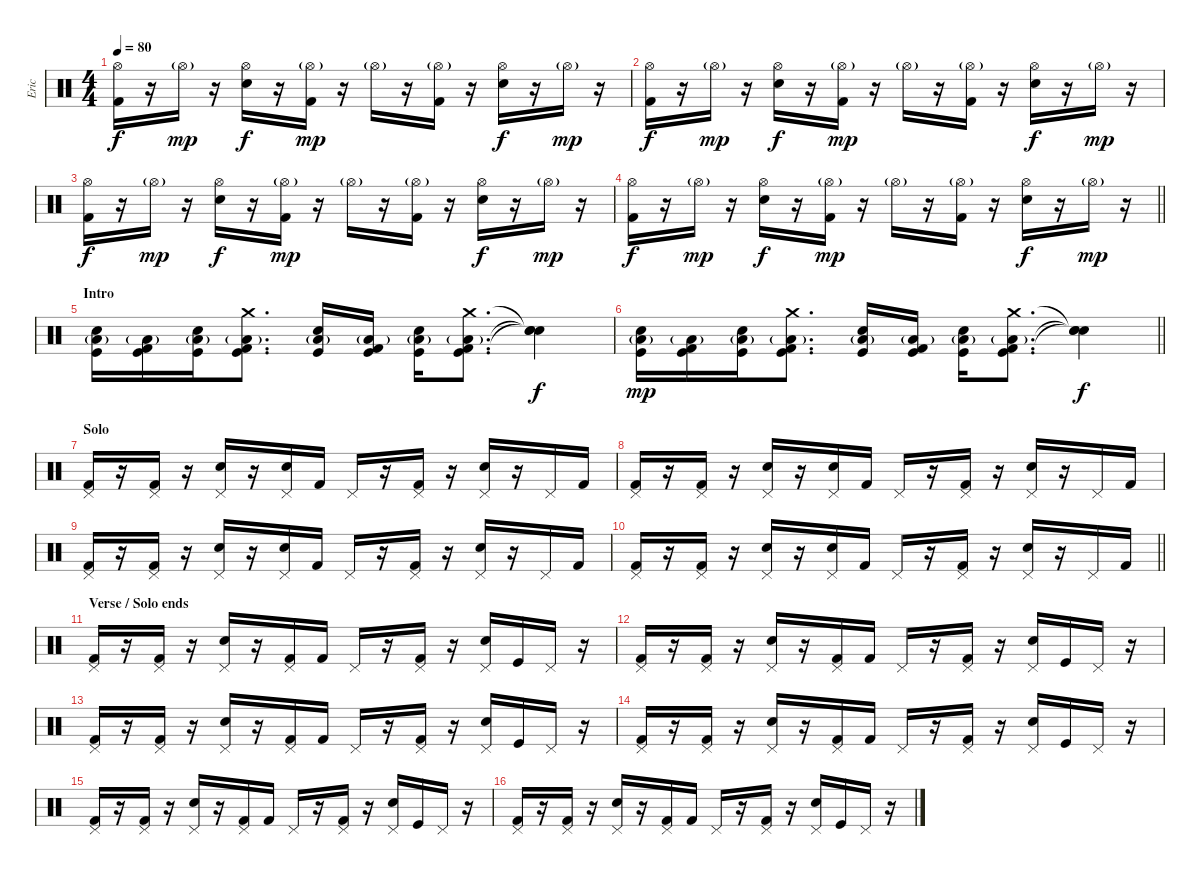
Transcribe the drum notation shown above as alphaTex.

\track ("Eric" "Eric") {instrument percussion}
\staff {score}
\articulation defaults
\ts (4 4)
\tempo 80
\clef neutral
\ks c
("Hi-Hat (open)" "Kick (hit) 2").16{dy f} r.16 "Hi-Hat (open)"{g}.16{dy mp} r.16 ("Hi-Hat (open)" "Electric Snare (hit)").16{dy f} r.16 ("Hi-Hat (open)"{g} "Kick (hit) 2").16{dy mp} r.16 "Hi-Hat (open)"{g}.16 r.16 ("Hi-Hat (open)"{g} "Kick (hit) 2").16 r.16 ("Hi-Hat (open)" "Electric Snare (hit)").16{dy f} r.16 "Hi-Hat (open)"{g}.16{dy mp} r.16 |
("Hi-Hat (open)" "Kick (hit) 2").16{dy f} r.16 "Hi-Hat (open)"{g}.16{dy mp} r.16 ("Hi-Hat (open)" "Electric Snare (hit)").16{dy f} r.16 ("Hi-Hat (open)"{g} "Kick (hit) 2").16{dy mp} r.16 "Hi-Hat (open)"{g}.16 r.16 ("Hi-Hat (open)"{g} "Kick (hit) 2").16 r.16 ("Hi-Hat (open)" "Electric Snare (hit)").16{dy f} r.16 "Hi-Hat (open)"{g}.16{dy mp} r.16 |
("Hi-Hat (open)" "Kick (hit) 2").16{dy f} r.16 "Hi-Hat (open)"{g}.16{dy mp} r.16 ("Hi-Hat (open)" "Electric Snare (hit)").16{dy f} r.16 ("Hi-Hat (open)"{g} "Kick (hit) 2").16{dy mp} r.16 "Hi-Hat (open)"{g}.16 r.16 ("Hi-Hat (open)"{g} "Kick (hit) 2").16 r.16 ("Hi-Hat (open)" "Electric Snare (hit)").16{dy f} r.16 "Hi-Hat (open)"{g}.16{dy mp} r.16 |
\barLineRight lightlight
("Hi-Hat (open)" "Kick (hit) 2").16{dy f} r.16 "Hi-Hat (open)"{g}.16{dy mp} r.16 ("Hi-Hat (open)" "Electric Snare (hit)").16{dy f} r.16 ("Hi-Hat (open)"{g} "Kick (hit) 2").16{dy mp} r.16 "Hi-Hat (open)"{g}.16 r.16 ("Hi-Hat (open)"{g} "Kick (hit) 2").16 r.16 ("Hi-Hat (open)" "Electric Snare (hit)").16{dy f} r.16 "Hi-Hat (open)"{g}.16{dy mp} r.16 |
\section ("" "Intro")
("Electric Snare (hit)" "Low Tom (hit)"{g} "Kick (hit)").16 ("Kick (hit) 2" "Low Tom (hit)"{g} "Kick (hit)").16 ("Electric Snare (hit)" "Low Tom (hit)"{g} "Kick (hit)").16 ("Crash medium (hit)" "Kick (hit) 2" "Low Tom (hit)"{g} "Kick (hit)").8{d} ("Electric Snare (hit)" "Low Tom (hit)"{g} "Kick (hit)").16 ("Kick (hit) 2" "Low Tom (hit)"{g} "Kick (hit)").16 ("Electric Snare (hit)" "Low Tom (hit)"{g} "Kick (hit)").16 ("Crash medium (hit)" "Kick (hit) 2" "Low Tom (hit)"{g} "Kick (hit)").8{d} ("Snare (hit)"{t} "Snare (hit)"{t} "Snare (hit)"{t}).4{dy f} |
\barLineRight lightlight
("Electric Snare (hit)" "Low Tom (hit)"{g} "Kick (hit)").16{dy mp} ("Kick (hit) 2" "Low Tom (hit)"{g} "Kick (hit)").16 ("Electric Snare (hit)" "Low Tom (hit)"{g} "Kick (hit)").16 ("Crash medium (hit)" "Kick (hit) 2" "Low Tom (hit)"{g} "Kick (hit)").8{d} ("Electric Snare (hit)" "Low Tom (hit)"{g} "Kick (hit)").16 ("Kick (hit) 2" "Low Tom (hit)"{g} "Kick (hit)").16 ("Electric Snare (hit)" "Low Tom (hit)"{g} "Kick (hit)").16 ("Crash medium (hit)" "Kick (hit) 2" "Low Tom (hit)"{g} "Kick (hit)").8{d} ("Snare (hit)"{t} "Snare (hit)"{t} "Snare (hit)"{t}).4{dy f} |
\section ("" "Solo")
("Pedal Hi-Hat (hit)" "Kick (hit) 2").16 r.16 ("Pedal Hi-Hat (hit)" "Kick (hit) 2").16 r.16 ("Pedal Hi-Hat (hit)" "Electric Snare (hit)").16 r.16 ("Pedal Hi-Hat (hit)" "Electric Snare (hit)").16 "Kick (hit) 2".16 "Pedal Hi-Hat (hit)".16 r.16 ("Pedal Hi-Hat (hit)" "Kick (hit) 2").16 r.16 ("Pedal Hi-Hat (hit)" "Electric Snare (hit)").16 r.16 "Pedal Hi-Hat (hit)".16 "Kick (hit) 2".16 |
("Pedal Hi-Hat (hit)" "Kick (hit) 2").16 r.16 ("Pedal Hi-Hat (hit)" "Kick (hit) 2").16 r.16 ("Pedal Hi-Hat (hit)" "Electric Snare (hit)").16 r.16 ("Pedal Hi-Hat (hit)" "Electric Snare (hit)").16 "Kick (hit) 2".16 "Pedal Hi-Hat (hit)".16 r.16 ("Pedal Hi-Hat (hit)" "Kick (hit) 2").16 r.16 ("Pedal Hi-Hat (hit)" "Electric Snare (hit)").16 r.16 "Pedal Hi-Hat (hit)".16 "Kick (hit) 2".16 |
("Pedal Hi-Hat (hit)" "Kick (hit) 2").16 r.16 ("Pedal Hi-Hat (hit)" "Kick (hit) 2").16 r.16 ("Pedal Hi-Hat (hit)" "Electric Snare (hit)").16 r.16 ("Pedal Hi-Hat (hit)" "Electric Snare (hit)").16 "Kick (hit) 2".16 "Pedal Hi-Hat (hit)".16 r.16 ("Pedal Hi-Hat (hit)" "Kick (hit) 2").16 r.16 ("Pedal Hi-Hat (hit)" "Electric Snare (hit)").16 r.16 "Pedal Hi-Hat (hit)".16 "Kick (hit) 2".16 |
\barLineRight lightlight
("Pedal Hi-Hat (hit)" "Kick (hit) 2").16 r.16 ("Pedal Hi-Hat (hit)" "Kick (hit) 2").16 r.16 ("Pedal Hi-Hat (hit)" "Electric Snare (hit)").16 r.16 ("Pedal Hi-Hat (hit)" "Electric Snare (hit)").16 "Kick (hit) 2".16 "Pedal Hi-Hat (hit)".16 r.16 ("Pedal Hi-Hat (hit)" "Kick (hit) 2").16 r.16 ("Pedal Hi-Hat (hit)" "Electric Snare (hit)").16 r.16 "Pedal Hi-Hat (hit)".16 "Kick (hit) 2".16 |
\section ("" "Verse / Solo ends")
("Pedal Hi-Hat (hit)" "Kick (hit) 2").16 r.16 ("Pedal Hi-Hat (hit)" "Kick (hit) 2").16 r.16 ("Pedal Hi-Hat (hit)" "Electric Snare (hit)").16 r.16 ("Pedal Hi-Hat (hit)" "Kick (hit) 2").16 "Kick (hit) 2".16 "Pedal Hi-Hat (hit)".16 r.16 ("Pedal Hi-Hat (hit)" "Kick (hit) 2").16 r.16 ("Pedal Hi-Hat (hit)" "Electric Snare (hit)").16 "Kick (hit)".16 "Pedal Hi-Hat (hit)".16 r.16 |
("Pedal Hi-Hat (hit)" "Kick (hit) 2").16 r.16 ("Pedal Hi-Hat (hit)" "Kick (hit) 2").16 r.16 ("Pedal Hi-Hat (hit)" "Electric Snare (hit)").16 r.16 ("Pedal Hi-Hat (hit)" "Kick (hit) 2").16 "Kick (hit) 2".16 "Pedal Hi-Hat (hit)".16 r.16 ("Pedal Hi-Hat (hit)" "Kick (hit) 2").16 r.16 ("Pedal Hi-Hat (hit)" "Electric Snare (hit)").16 "Kick (hit)".16 "Pedal Hi-Hat (hit)".16 r.16 |
("Pedal Hi-Hat (hit)" "Kick (hit) 2").16 r.16 ("Pedal Hi-Hat (hit)" "Kick (hit) 2").16 r.16 ("Pedal Hi-Hat (hit)" "Electric Snare (hit)").16 r.16 ("Pedal Hi-Hat (hit)" "Kick (hit) 2").16 "Kick (hit) 2".16 "Pedal Hi-Hat (hit)".16 r.16 ("Pedal Hi-Hat (hit)" "Kick (hit) 2").16 r.16 ("Pedal Hi-Hat (hit)" "Electric Snare (hit)").16 "Kick (hit)".16 "Pedal Hi-Hat (hit)".16 r.16 |
("Pedal Hi-Hat (hit)" "Kick (hit) 2").16 r.16 ("Pedal Hi-Hat (hit)" "Kick (hit) 2").16 r.16 ("Pedal Hi-Hat (hit)" "Electric Snare (hit)").16 r.16 ("Pedal Hi-Hat (hit)" "Kick (hit) 2").16 "Kick (hit) 2".16 "Pedal Hi-Hat (hit)".16 r.16 ("Pedal Hi-Hat (hit)" "Kick (hit) 2").16 r.16 ("Pedal Hi-Hat (hit)" "Electric Snare (hit)").16 "Kick (hit)".16 "Pedal Hi-Hat (hit)".16 r.16 |
("Pedal Hi-Hat (hit)" "Kick (hit) 2").16 r.16 ("Pedal Hi-Hat (hit)" "Kick (hit) 2").16 r.16 ("Pedal Hi-Hat (hit)" "Electric Snare (hit)").16 r.16 ("Pedal Hi-Hat (hit)" "Kick (hit) 2").16 "Kick (hit) 2".16 "Pedal Hi-Hat (hit)".16 r.16 ("Pedal Hi-Hat (hit)" "Kick (hit) 2").16 r.16 ("Pedal Hi-Hat (hit)" "Electric Snare (hit)").16 "Kick (hit)".16 "Pedal Hi-Hat (hit)".16 r.16 |
("Pedal Hi-Hat (hit)" "Kick (hit) 2").16 r.16 ("Pedal Hi-Hat (hit)" "Kick (hit) 2").16 r.16 ("Pedal Hi-Hat (hit)" "Electric Snare (hit)").16 r.16 ("Pedal Hi-Hat (hit)" "Kick (hit) 2").16 "Kick (hit) 2".16 "Pedal Hi-Hat (hit)".16 r.16 ("Pedal Hi-Hat (hit)" "Kick (hit) 2").16 r.16 ("Pedal Hi-Hat (hit)" "Electric Snare (hit)").16 "Kick (hit)".16 "Pedal Hi-Hat (hit)".16 r.16
